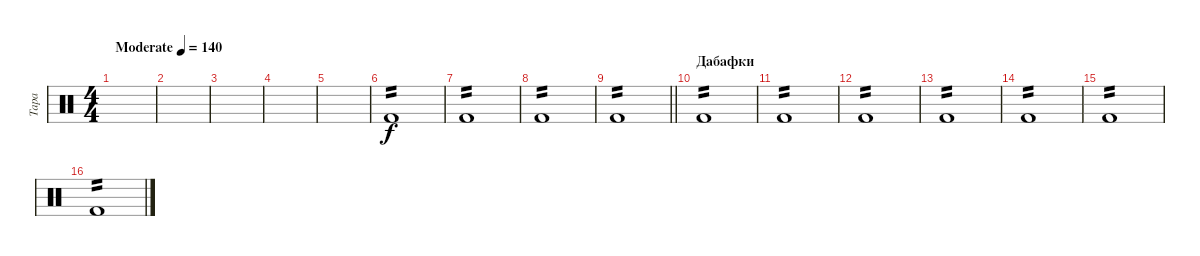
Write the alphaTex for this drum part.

\track ("Tapa" "Tapa") {instrument percussion}
\staff {score}
\articulation defaults
\ts (4 4)
\tempo (140 "Moderate")
\clef neutral
\ks c
|
|
|
|
|
"Kick (hit) 2".1{tp 2} |
"Kick (hit) 2".1{tp 2} |
"Kick (hit) 2".1{tp 2} |
\barLineRight lightlight "Kick (hit) 2".1{tp 2}
|
\section ("" "Дабафки")
"Kick (hit) 2".1{tp 2} |
"Kick (hit) 2".1{tp 2} |
"Kick (hit) 2".1{tp 2} |
"Kick (hit) 2".1{tp 2} |
"Kick (hit) 2".1{tp 2} |
"Kick (hit) 2".1{tp 2} |
"Kick (hit) 2".1{tp 2}
